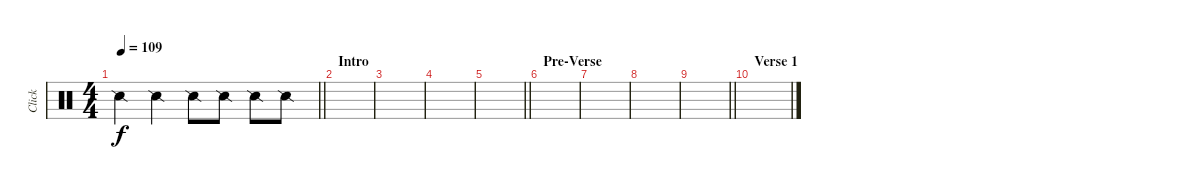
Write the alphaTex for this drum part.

\track ("Click" "Click") {instrument percussion}
\staff {score}
\articulation defaults
\ts (4 4)
\tempo 109
\clef neutral
\barLineRight lightlight
\ks c "Snare (side stick) 2".4{dy f} "Snare (side stick) 2".4 "Snare (side stick) 2".8 "Snare (side stick) 2".8 "Snare (side stick) 2".8 "Snare (side stick) 2".8
|
\section ("" "Intro")
\ks aminor
|
|
|
\barLineRight lightlight
|
\section ("" "Pre-Verse")
|
|
|
\barLineRight lightlight
|
\section ("" "Verse 1")
